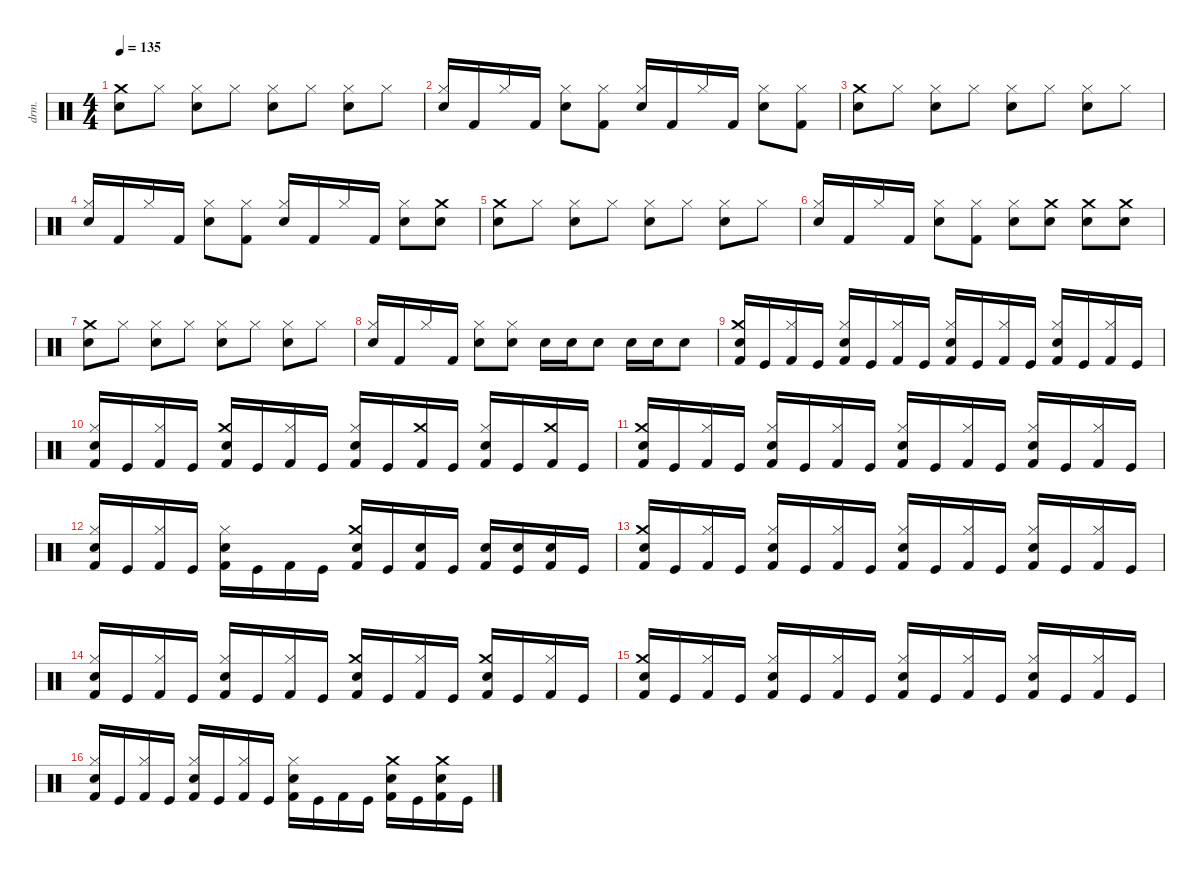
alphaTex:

\defaultSystemsLayout 4
\hideDynamics
\bracketExtendMode nobrackets
\otherSystemsTrackNameOrientation horizontal
\track ("Lars Ulrich (Drums)" "drm.") {instrument percussion}
\staff {score}
\articulation defaults
\ts (4 4)
\tempo 135
\clef neutral
\ks c
("Crash medium (hit)" "Snare (hit) 2").8{dy f beam Down} "Hi-Hat (closed)".8{beam Down} ("Snare (hit) 2" "Hi-Hat (closed)").8{beam Down} "Hi-Hat (closed)".8{beam Down} ("Snare (hit) 2" "Hi-Hat (closed)").8{beam Down} "Hi-Hat (closed)".8{beam Down} ("Snare (hit) 2" "Hi-Hat (closed)").8{beam Down} "Hi-Hat (closed)".8{beam Down} |
("Snare (hit) 2" "Hi-Hat (closed)").16{beam Up} "Kick (hit) 2".16{beam Up} "Hi-Hat (closed)".16{beam Up} "Kick (hit) 2".16{beam Up} ("Snare (hit) 2" "Hi-Hat (closed)").8{beam Down} ("Kick (hit) 2" "Hi-Hat (closed)").8{beam Down} ("Snare (hit) 2" "Hi-Hat (closed)").16{beam Up} "Kick (hit) 2".16{beam Up} "Hi-Hat (closed)".16{beam Up} "Kick (hit) 2".16{beam Up} ("Snare (hit) 2" "Hi-Hat (closed)").8{beam Down} ("Kick (hit) 2" "Hi-Hat (closed)").8{beam Down} |
("Crash medium (hit)" "Snare (hit) 2").8{beam Down} "Hi-Hat (closed)".8{beam Down} ("Snare (hit) 2" "Hi-Hat (closed)").8{beam Down} "Hi-Hat (closed)".8{beam Down} ("Snare (hit) 2" "Hi-Hat (closed)").8{beam Down} "Hi-Hat (closed)".8{beam Down} ("Snare (hit) 2" "Hi-Hat (closed)").8{beam Down} "Hi-Hat (closed)".8{beam Down} |
("Snare (hit) 2" "Hi-Hat (closed)").16{beam Up} "Kick (hit) 2".16{beam Up} "Hi-Hat (closed)".16{beam Up} "Kick (hit) 2".16{beam Up} ("Snare (hit) 2" "Hi-Hat (closed)").8{beam Down} ("Kick (hit) 2" "Hi-Hat (closed)").8{beam Down} ("Snare (hit) 2" "Hi-Hat (closed)").16{beam Up} "Kick (hit) 2".16{beam Up} "Hi-Hat (closed)".16{beam Up} "Kick (hit) 2".16{beam Up} ("Snare (hit) 2" "Hi-Hat (closed)").8{beam Down} ("Snare (hit) 2" "Crash medium (hit)").8{beam Down} |
("Crash medium (hit)" "Snare (hit) 2").8{beam Down} "Hi-Hat (closed)".8{beam Down} ("Snare (hit) 2" "Hi-Hat (closed)").8{beam Down} "Hi-Hat (closed)".8{beam Down} ("Snare (hit) 2" "Hi-Hat (closed)").8{beam Down} "Hi-Hat (closed)".8{beam Down} ("Snare (hit) 2" "Hi-Hat (closed)").8{beam Down} "Hi-Hat (closed)".8{beam Down} |
("Snare (hit) 2" "Hi-Hat (closed)").16{beam Up} "Kick (hit) 2".16{beam Up} "Hi-Hat (closed)".16{beam Up} "Kick (hit) 2".16{beam Up} ("Snare (hit) 2" "Hi-Hat (closed)").8{beam Down} ("Kick (hit) 2" "Hi-Hat (closed)").8{beam Down} ("Hi-Hat (closed)" "Snare (hit) 2").8{beam Down} ("Crash medium (hit)" "Snare (hit) 2").8{beam Down} ("Crash medium (hit)" "Snare (hit) 2").8{beam Down} ("Crash medium (hit)" "Snare (hit) 2").8{beam Down} |
("Crash medium (hit)" "Snare (hit) 2").8{beam Down} "Hi-Hat (closed)".8{beam Down} ("Snare (hit) 2" "Hi-Hat (closed)").8{beam Down} "Hi-Hat (closed)".8{beam Down} ("Snare (hit) 2" "Hi-Hat (closed)").8{beam Down} "Hi-Hat (closed)".8{beam Down} ("Snare (hit) 2" "Hi-Hat (closed)").8{beam Down} "Hi-Hat (closed)".8{beam Down} |
("Hi-Hat (closed)" "Snare (hit) 2").16{beam Up} "Kick (hit) 2".16{beam Up} "Hi-Hat (closed)".16{beam Up} "Kick (hit) 2".16{beam Up} ("Snare (hit) 2" "Hi-Hat (closed)").8{beam Down} ("Hi-Hat (closed)" "Snare (hit) 2").8{beam Down} "Snare (hit) 2".16{beam Down} "Snare (hit) 2".16{beam Down} "Snare (hit) 2".8{beam Down} "Snare (hit) 2".16{beam Down} "Snare (hit) 2".16{beam Down} "Snare (hit) 2".8{beam Down} |
("Snare (hit) 2" "Crash medium (hit)" "Kick (hit) 2").16{beam Up} "Kick (hit)".16{beam Up} ("Hi-Hat (closed)" "Kick (hit) 2").16{beam Up} "Kick (hit)".16{beam Up} ("Snare (hit) 2" "Hi-Hat (closed)" "Kick (hit) 2").16{beam Up} "Kick (hit)".16{beam Up} ("Hi-Hat (closed)" "Kick (hit) 2").16{beam Up} "Kick (hit)".16{beam Up} ("Snare (hit) 2" "Hi-Hat (closed)" "Kick (hit) 2").16{beam Up} "Kick (hit)".16{beam Up} ("Hi-Hat (closed)" "Kick (hit) 2").16{beam Up} "Kick (hit)".16{beam Up} ("Snare (hit) 2" "Hi-Hat (closed)" "Kick (hit) 2").16{beam Up} "Kick (hit)".16{beam Up} ("Hi-Hat (closed)" "Kick (hit) 2").16{beam Up} "Kick (hit)".16{beam Up} |
("Snare (hit) 2" "Hi-Hat (closed)" "Kick (hit) 2").16{beam Up} "Kick (hit)".16{beam Up} ("Hi-Hat (closed)" "Kick (hit) 2").16{beam Up} "Kick (hit)".16{beam Up} ("Crash medium (hit)" "Snare (hit) 2" "Kick (hit) 2").16{beam Up} "Kick (hit)".16{beam Up} ("Hi-Hat (closed)" "Kick (hit) 2").16{beam Up} "Kick (hit)".16{beam Up} ("Snare (hit) 2" "Hi-Hat (closed)" "Kick (hit) 2").16{beam Up} "Kick (hit)".16{beam Up} ("Crash medium (hit)" "Kick (hit) 2").16{beam Up} "Kick (hit)".16{beam Up} ("Snare (hit) 2" "Hi-Hat (closed)" "Kick (hit) 2").16{beam Up} "Kick (hit)".16{beam Up} ("Crash medium (hit)" "Kick (hit) 2").16{beam Up} "Kick (hit)".16{beam Up} |
("Snare (hit) 2" "Crash medium (hit)" "Kick (hit) 2").16{beam Up} "Kick (hit)".16{beam Up} ("Hi-Hat (closed)" "Kick (hit) 2").16{beam Up} "Kick (hit)".16{beam Up} ("Snare (hit) 2" "Hi-Hat (closed)" "Kick (hit) 2").16{beam Up} "Kick (hit)".16{beam Up} ("Hi-Hat (closed)" "Kick (hit) 2").16{beam Up} "Kick (hit)".16{beam Up} ("Snare (hit) 2" "Hi-Hat (closed)" "Kick (hit) 2").16{beam Up} "Kick (hit)".16{beam Up} ("Hi-Hat (closed)" "Kick (hit) 2").16{beam Up} "Kick (hit)".16{beam Up} ("Snare (hit) 2" "Hi-Hat (closed)" "Kick (hit) 2").16{beam Up} "Kick (hit)".16{beam Up} ("Hi-Hat (closed)" "Kick (hit) 2").16{beam Up} "Kick (hit)".16{beam Up} |
("Snare (hit) 2" "Hi-Hat (closed)" "Kick (hit) 2").16{beam Up} "Kick (hit)".16{beam Up} ("Hi-Hat (closed)" "Kick (hit) 2").16{beam Up} "Kick (hit)".16{beam Up} ("Snare (hit) 2" "Hi-Hat (closed)" "Kick (hit) 2").16{beam Down} "Kick (hit)".16{beam Down} "Kick (hit) 2".16{beam Down} "Kick (hit)".16{beam Down} ("Snare (hit) 2" "Crash medium (hit)" "Kick (hit) 2").16{beam Up} "Kick (hit)".16{beam Up} ("Snare (hit) 2" "Kick (hit) 2").16{beam Up} "Kick (hit)".16{beam Up} ("Snare (hit) 2" "Kick (hit) 2").16{beam Up} ("Snare (hit) 2" "Kick (hit)").16{beam Up} ("Snare (hit) 2" "Kick (hit) 2").16{beam Up} "Kick (hit)".16{beam Up} |
("Snare (hit) 2" "Crash medium (hit)" "Kick (hit) 2").16{beam Up} "Kick (hit)".16{beam Up} ("Hi-Hat (closed)" "Kick (hit) 2").16{beam Up} "Kick (hit)".16{beam Up} ("Snare (hit) 2" "Hi-Hat (closed)" "Kick (hit) 2").16{beam Up} "Kick (hit)".16{beam Up} ("Hi-Hat (closed)" "Kick (hit) 2").16{beam Up} "Kick (hit)".16{beam Up} ("Snare (hit) 2" "Hi-Hat (closed)" "Kick (hit) 2").16{beam Up} "Kick (hit)".16{beam Up} ("Hi-Hat (closed)" "Kick (hit) 2").16{beam Up} "Kick (hit)".16{beam Up} ("Snare (hit) 2" "Hi-Hat (closed)" "Kick (hit) 2").16{beam Up} "Kick (hit)".16{beam Up} ("Hi-Hat (closed)" "Kick (hit) 2").16{beam Up} "Kick (hit)".16{beam Up} |
("Snare (hit) 2" "Hi-Hat (closed)" "Kick (hit) 2").16{beam Up} "Kick (hit)".16{beam Up} ("Hi-Hat (closed)" "Kick (hit) 2").16{beam Up} "Kick (hit)".16{beam Up} ("Snare (hit) 2" "Hi-Hat (closed)" "Kick (hit) 2").16{beam Up} "Kick (hit)".16{beam Up} ("Hi-Hat (closed)" "Kick (hit) 2").16{beam Up} "Kick (hit)".16{beam Up} ("Crash medium (hit)" "Snare (hit) 2" "Kick (hit) 2").16{beam Up} "Kick (hit)".16{beam Up} ("Hi-Hat (closed)" "Kick (hit) 2").16{beam Up} "Kick (hit)".16{beam Up} ("Crash medium (hit)" "Snare (hit) 2" "Kick (hit) 2").16{beam Up} "Kick (hit)".16{beam Up} ("Hi-Hat (closed)" "Kick (hit) 2").16{beam Up} "Kick (hit)".16{beam Up} |
("Snare (hit) 2" "Crash medium (hit)" "Kick (hit) 2").16{beam Up} "Kick (hit)".16{beam Up} ("Hi-Hat (closed)" "Kick (hit) 2").16{beam Up} "Kick (hit)".16{beam Up} ("Snare (hit) 2" "Hi-Hat (closed)" "Kick (hit) 2").16{beam Up} "Kick (hit)".16{beam Up} ("Hi-Hat (closed)" "Kick (hit) 2").16{beam Up} "Kick (hit)".16{beam Up} ("Snare (hit) 2" "Hi-Hat (closed)" "Kick (hit) 2").16{beam Up} "Kick (hit)".16{beam Up} ("Hi-Hat (closed)" "Kick (hit) 2").16{beam Up} "Kick (hit)".16{beam Up} ("Snare (hit) 2" "Hi-Hat (closed)" "Kick (hit) 2").16{beam Up} "Kick (hit)".16{beam Up} ("Hi-Hat (closed)" "Kick (hit) 2").16{beam Up} "Kick (hit)".16{beam Up} |
("Snare (hit) 2" "Hi-Hat (closed)" "Kick (hit) 2").16{beam Up} "Kick (hit)".16{beam Up} ("Hi-Hat (closed)" "Kick (hit) 2").16{beam Up} "Kick (hit)".16{beam Up} ("Hi-Hat (closed)" "Snare (hit) 2" "Kick (hit) 2").16{beam Up} "Kick (hit)".16{beam Up} ("Hi-Hat (closed)" "Kick (hit) 2").16{beam Up} "Kick (hit)".16{beam Up} ("Snare (hit) 2" "Hi-Hat (closed)" "Kick (hit) 2").16{beam Down} "Kick (hit)".16{beam Down} "Kick (hit) 2".16{beam Down} "Kick (hit)".16{beam Down} ("Crash medium (hit)" "Snare (hit) 2" "Kick (hit) 2").16{beam Down} "Kick (hit)".16{beam Down} ("Crash medium (hit)" "Snare (hit) 2" "Kick (hit) 2").16{beam Down} "Kick (hit)".16{beam Down}
